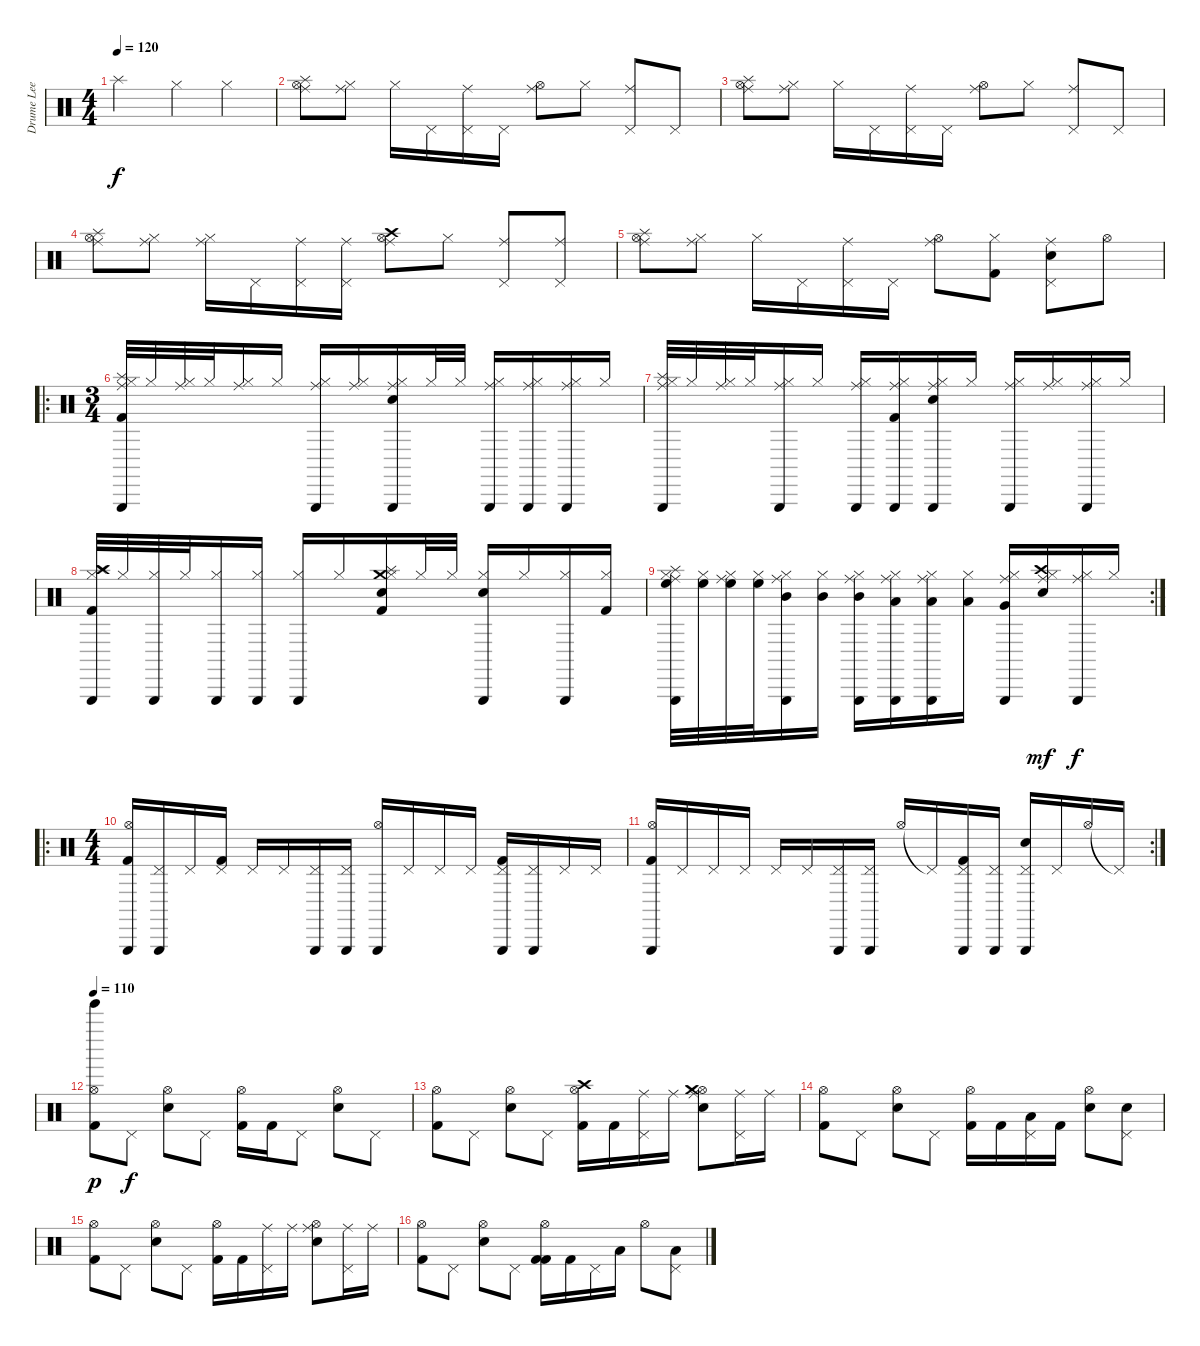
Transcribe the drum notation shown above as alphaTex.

\track ("Drume Lee Jhones" "Drume Lee ") {instrument percussion}
\staff {score}
\articulation defaults
\ts (4 4)
\tempo 120
\clef neutral
\ks c "Splash (hit)".2{dy f} "Hi-Hat (closed)".4 "Hi-Hat (closed)".4
|
("Hi-Hat (open)" "Splash (hit)" "Ride (middle)").8 ("Hi-Hat (closed)" "Ride (middle)").8 "Hi-Hat (closed)".16 "Pedal Hi-Hat (hit)".16 ("Pedal Hi-Hat (hit)" "Ride (middle)").16 "Pedal Hi-Hat (hit)".16 ("Hi-Hat (open)" "Ride (middle)").8 "Hi-Hat (closed)".8 ("Pedal Hi-Hat (hit)" "Ride (middle)").8 "Pedal Hi-Hat (hit)".8 |
("Hi-Hat (open)" "Splash (hit)" "Ride (middle)").8 ("Hi-Hat (closed)" "Ride (middle)").8 "Hi-Hat (closed)".16 "Pedal Hi-Hat (hit)".16 ("Pedal Hi-Hat (hit)" "Ride (middle)").16 "Pedal Hi-Hat (hit)".16 ("Hi-Hat (open)" "Ride (middle)").8 "Hi-Hat (closed)".8 ("Pedal Hi-Hat (hit)" "Ride (middle)").8 "Pedal Hi-Hat (hit)".8 |
("Hi-Hat (open)" "Splash (hit)" "Ride (middle)").8 ("Hi-Hat (closed)" "Ride (middle)").8 ("Hi-Hat (closed)" "Ride (middle)").16 "Pedal Hi-Hat (hit)".16 ("Pedal Hi-Hat (hit)" "Ride (middle)").16 ("Pedal Hi-Hat (hit)" "Ride (middle)").16 ("Crash high (hit)" "Hi-Hat (open)" "Ride (middle)").8 "Hi-Hat (closed)".8 ("Pedal Hi-Hat (hit)" "Ride (middle)").8 ("Pedal Hi-Hat (hit)" "Ride (middle)").8 |
("Hi-Hat (open)" "Splash (hit)" "Ride (middle)").8 ("Hi-Hat (closed)" "Ride (middle)").8 "Hi-Hat (closed)".16 "Pedal Hi-Hat (hit)".16 ("Pedal Hi-Hat (hit)" "Ride (middle)").16 "Pedal Hi-Hat (hit)".16 ("Hi-Hat (open)" "Ride (middle)").8 ("Hi-Hat (closed)" "Kick (hit) 2").8 ("Pedal Hi-Hat (hit)" "Snare (hit) 2" "Ride (middle)").8 "Hi-Hat (open)".8 |
\ro
\ts (3 4)
("Ride (middle)" "Hi-Hat (closed)" "Splash (hit)" "Kick (hit) 2" "Triangle (hit)").32 "Hi-Hat (closed)".32 ("Ride (middle)" "Hi-Hat (closed)").32 "Hi-Hat (closed)".32 ("Ride (middle)" "Hi-Hat (closed)").16 "Hi-Hat (closed)".16 ("Ride (middle)" "Hi-Hat (closed)" "Triangle (hit)").16 ("Ride (middle)" "Hi-Hat (closed)").16 ("Ride (middle)" "Hi-Hat (closed)" "Snare (hit) 2" "Triangle (hit)").16 "Hi-Hat (closed)".32 "Hi-Hat (closed)".32 ("Ride (middle)" "Hi-Hat (closed)" "Triangle (hit)").16 ("Ride (middle)" "Hi-Hat (closed)" "Triangle (hit)").16 ("Ride (middle)" "Hi-Hat (closed)" "Triangle (hit)").16 "Hi-Hat (closed)".16 |
("Ride (middle)" "Hi-Hat (closed)" "Splash (hit)" "Triangle (hit)").32 "Hi-Hat (closed)".32 ("Ride (middle)" "Hi-Hat (closed)").32 "Hi-Hat (closed)".32 ("Ride (middle)" "Hi-Hat (closed)" "Triangle (hit)").16 "Hi-Hat (closed)".16 ("Ride (middle)" "Hi-Hat (closed)" "Triangle (hit)").16 ("Ride (middle)" "Hi-Hat (closed)" "Kick (hit) 2" "Triangle (hit)").16 ("Ride (middle)" "Hi-Hat (closed)" "Snare (hit) 2" "Triangle (hit)").16 "Hi-Hat (closed)".16 ("Ride (middle)" "Hi-Hat (closed)" "Triangle (hit)").16 ("Ride (middle)" "Hi-Hat (closed)").16 ("Ride (middle)" "Hi-Hat (closed)" "Triangle (hit)").16 "Hi-Hat (closed)".16 |
("Crash high (hit)" "Hi-Hat (closed)" "Splash (hit)" "Kick (hit) 2" "Triangle (hit)").32 "Hi-Hat (closed)".32 ("Hi-Hat (closed)" "Triangle (hit)").32 "Hi-Hat (closed)".32 ("Hi-Hat (closed)" "Triangle (hit)").16 ("Hi-Hat (closed)" "Triangle (hit)").16 ("Hi-Hat (closed)" "Triangle (hit)").16 "Hi-Hat (closed)".16 ("Crash medium (hit)" "Hi-Hat (closed)" "Splash (hit)" "Snare (hit) 2" "Kick (hit) 2").16 "Hi-Hat (closed)".32 "Hi-Hat (closed)".32 ("Hi-Hat (closed)" "Snare (hit) 2" "Triangle (hit)").16 "Hi-Hat (closed)".16 ("Hi-Hat (closed)" "Triangle (hit)").16 ("Hi-Hat (closed)" "Kick (hit) 2").16 |
\rc 2
("Ride (middle)" "Hi-Hat (closed)" "Splash (hit)" "High Floor Tom (hit)" "Triangle (hit)").32 ("Hi-Hat (closed)" "High Floor Tom (hit)").32 ("Ride (middle)" "Hi-Hat (closed)" "High Floor Tom (hit)").32 ("Hi-Hat (closed)" "High Floor Tom (hit)").32 ("Ride (middle)" "Hi-Hat (closed)" "Mid Tom (hit)" "Triangle (hit)").16 ("Hi-Hat (closed)" "Mid Tom (hit)").16 ("Ride (middle)" "Hi-Hat (closed)" "Mid Tom (hit)" "Triangle (hit)").16 ("Ride (middle)" "Hi-Hat (closed)" "Low Tom (hit)" "Triangle (hit)").16 ("Ride (middle)" "Hi-Hat (closed)" "Low Tom (hit)" "Triangle (hit)").16 ("Hi-Hat (closed)" "Low Tom (hit)").16 ("Ride (middle)" "Hi-Hat (closed)" "Very Low Tom (hit)" "Triangle (hit)").16 ("Ride (middle)" "Hi-Hat (closed)" "Snare (hit) 2" "Crash high (hit)").16{dy mf} ("Ride (middle)" "Hi-Hat (closed)" "Triangle (hit)").16{dy f} "Hi-Hat (closed)".16 |
\ro
\ts (4 4)
("Triangle (hit)" "Hi-Hat (open)" "Kick (hit) 2").16 ("Triangle (hit)" "Pedal Hi-Hat (hit)").16 "Pedal Hi-Hat (hit)".16 ("Pedal Hi-Hat (hit)" "Kick (hit) 2").16 "Pedal Hi-Hat (hit)".16 "Pedal Hi-Hat (hit)".16 ("Triangle (hit)" "Pedal Hi-Hat (hit)").16 ("Triangle (hit)" "Pedal Hi-Hat (hit)").16 ("Triangle (hit)" "Hi-Hat (open)").16 "Pedal Hi-Hat (hit)".16 "Pedal Hi-Hat (hit)".16 "Pedal Hi-Hat (hit)".16 ("Triangle (hit)" "Pedal Hi-Hat (hit)" "Kick (hit) 2").16 ("Triangle (hit)" "Pedal Hi-Hat (hit)").16 "Pedal Hi-Hat (hit)".16 "Pedal Hi-Hat (hit)".16 |
\rc 2
("Triangle (hit)" "Hi-Hat (open)" "Kick (hit) 2").16 "Pedal Hi-Hat (hit)".16 "Pedal Hi-Hat (hit)".16 "Pedal Hi-Hat (hit)".16 "Pedal Hi-Hat (hit)".16 "Pedal Hi-Hat (hit)".16 ("Triangle (hit)" "Pedal Hi-Hat (hit)").16 ("Triangle (hit)" "Pedal Hi-Hat (hit)").16 "Hi-Hat (open)".16 "Pedal Hi-Hat (hit)"{t}.16 ("Triangle (hit)" "Pedal Hi-Hat (hit)" "Kick (hit) 2").16 ("Triangle (hit)" "Pedal Hi-Hat (hit)").16 ("Triangle (hit)" "Pedal Hi-Hat (hit)" "Snare (hit) 2").16 "Pedal Hi-Hat (hit)".16 "Hi-Hat (open)".16 "Pedal Hi-Hat (hit)"{t}.16 |
\tempo 110
("Tinkle Bell (hit)" "Hi-Hat (open)" "Kick (hit) 2").8{dy p} "Pedal Hi-Hat (hit)".8{dy f} ("Hi-Hat (open)" "Snare (hit) 2").8 "Pedal Hi-Hat (hit)".8 ("Hi-Hat (open)" "Kick (hit) 2").16 "Kick (hit) 2".16 "Pedal Hi-Hat (hit)".8 ("Hi-Hat (open)" "Snare (hit) 2").8 "Pedal Hi-Hat (hit)".8 |
("Hi-Hat (open)" "Kick (hit) 2").8 "Pedal Hi-Hat (hit)".8 ("Hi-Hat (open)" "Snare (hit) 2").8 "Pedal Hi-Hat (hit)".8 ("Hi-Hat (open)" "Crash high (hit)" "Kick (hit) 2").16 "Kick (hit) 2".16 ("Ride (middle)" "Pedal Hi-Hat (hit)").16 "Ride (middle)".16 ("Ride (middle)" "Hi-Hat (open)" "Snare (hit) 2" "Crash medium (hit)").8 ("Ride (middle)" "Pedal Hi-Hat (hit)").16 "Ride (middle)".16 |
("Hi-Hat (open)" "Kick (hit) 2").8 "Pedal Hi-Hat (hit)".8 ("Hi-Hat (open)" "Snare (hit) 2").8 "Pedal Hi-Hat (hit)".8 ("Hi-Hat (open)" "Kick (hit) 2").16 "Kick (hit) 2".16 ("Pedal Hi-Hat (hit)" "Low Tom (hit)").16 "Kick (hit) 2".16 ("Hi-Hat (open)" "Snare (hit) 2").8 ("Pedal Hi-Hat (hit)" "Snare (hit) 2").8 |
("Hi-Hat (open)" "Kick (hit) 2").8 "Pedal Hi-Hat (hit)".8 ("Hi-Hat (open)" "Snare (hit) 2").8 "Pedal Hi-Hat (hit)".8 ("Hi-Hat (open)" "Kick (hit) 2").16 "Kick (hit) 2".16 ("Ride (middle)" "Pedal Hi-Hat (hit)").16 "Ride (middle)".16 ("Ride (middle)" "Hi-Hat (open)" "Snare (hit) 2").8 ("Ride (middle)" "Pedal Hi-Hat (hit)").16 "Ride (middle)".16 |
("Hi-Hat (open)" "Kick (hit) 2").8 "Pedal Hi-Hat (hit)".8 ("Hi-Hat (open)" "Snare (hit) 2").8 "Pedal Hi-Hat (hit)".8 ("Hi-Hat (open)" "Kick (hit) 2" "Kick (hit) 2").16 "Kick (hit) 2".16 "Pedal Hi-Hat (hit)".16 "Low Tom (hit)".16 "Hi-Hat (open)".8 ("Pedal Hi-Hat (hit)" "Low Tom (hit)").8
